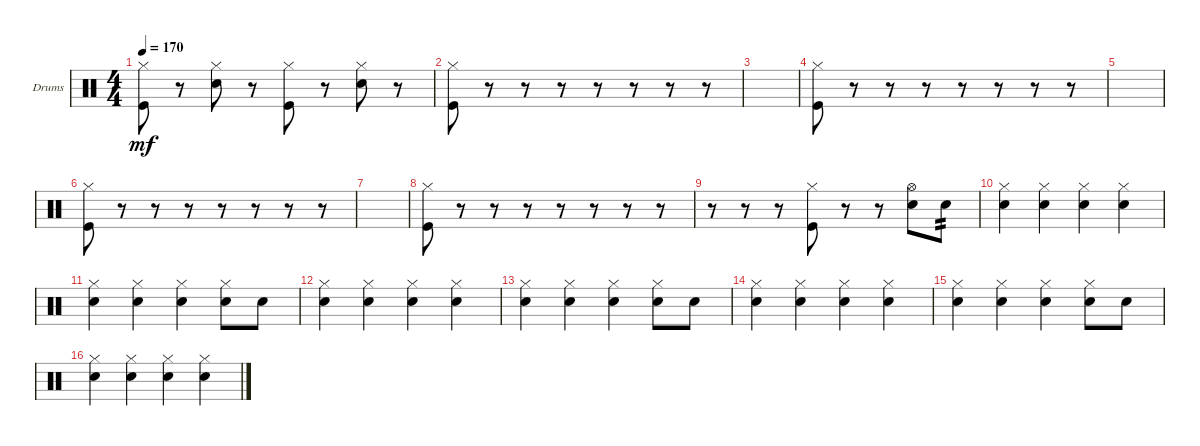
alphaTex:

\defaultSystemsLayout 4
\bracketExtendMode groupsimilarinstruments
\firstSystemTrackNameOrientation horizontal
\otherSystemsTrackNameOrientation horizontal
\track ("Drumkit" "Drums") {instrument percussion}
\staff {score}
\articulation defaults
\ts (4 4)
\tempo 170
\clef neutral
\ks c
("Kick (hit)" "Hi-Hat (closed)").8{dy mf} r.8 ("Snare (hit) 2" "Hi-Hat (closed)").8 r.8 ("Kick (hit)" "Hi-Hat (closed)").8 r.8 ("Snare (hit) 2" "Hi-Hat (closed)").8 r.8 |
("Kick (hit)" "Hi-Hat (closed)").8 r.8 r.8 r.8 r.8 r.8 r.8 r.8 |
|
("Kick (hit)" "Hi-Hat (closed)").8 r.8 r.8 r.8 r.8 r.8 r.8 r.8 |
|
("Kick (hit)" "Hi-Hat (closed)").8 r.8 r.8 r.8 r.8 r.8 r.8 r.8 |
|
("Kick (hit)" "Hi-Hat (closed)").8 r.8 r.8 r.8 r.8 r.8 r.8 r.8 |
r.8 r.8 r.8 ("Kick (hit)" "Hi-Hat (closed)").8 r.8 r.8 ("Snare (hit) 2" "Hi-Hat (open)").8 "Snare (hit) 2".8{tp 2} |
("Snare (hit) 2" "Hi-Hat (closed)").4 ("Snare (hit) 2" "Hi-Hat (closed)").4 ("Snare (hit) 2" "Hi-Hat (closed)").4 ("Snare (hit) 2" "Hi-Hat (closed)").4 |
("Snare (hit) 2" "Hi-Hat (closed)").4 ("Snare (hit) 2" "Hi-Hat (closed)").4 ("Snare (hit) 2" "Hi-Hat (closed)").4 ("Snare (hit) 2" "Hi-Hat (closed)").8 "Snare (hit) 2".8 |
("Snare (hit) 2" "Hi-Hat (closed)").4 ("Snare (hit) 2" "Hi-Hat (closed)").4 ("Snare (hit) 2" "Hi-Hat (closed)").4 ("Snare (hit) 2" "Hi-Hat (closed)").4 |
("Snare (hit) 2" "Hi-Hat (closed)").4 ("Snare (hit) 2" "Hi-Hat (closed)").4 ("Snare (hit) 2" "Hi-Hat (closed)").4 ("Snare (hit) 2" "Hi-Hat (closed)").8 "Snare (hit) 2".8 |
("Snare (hit) 2" "Hi-Hat (closed)").4 ("Snare (hit) 2" "Hi-Hat (closed)").4 ("Snare (hit) 2" "Hi-Hat (closed)").4 ("Snare (hit) 2" "Hi-Hat (closed)").4 |
("Snare (hit) 2" "Hi-Hat (closed)").4 ("Snare (hit) 2" "Hi-Hat (closed)").4 ("Snare (hit) 2" "Hi-Hat (closed)").4 ("Snare (hit) 2" "Hi-Hat (closed)").8 "Snare (hit) 2".8 |
("Snare (hit) 2" "Hi-Hat (closed)").4 ("Snare (hit) 2" "Hi-Hat (closed)").4 ("Snare (hit) 2" "Hi-Hat (closed)").4 ("Snare (hit) 2" "Hi-Hat (closed)").4
